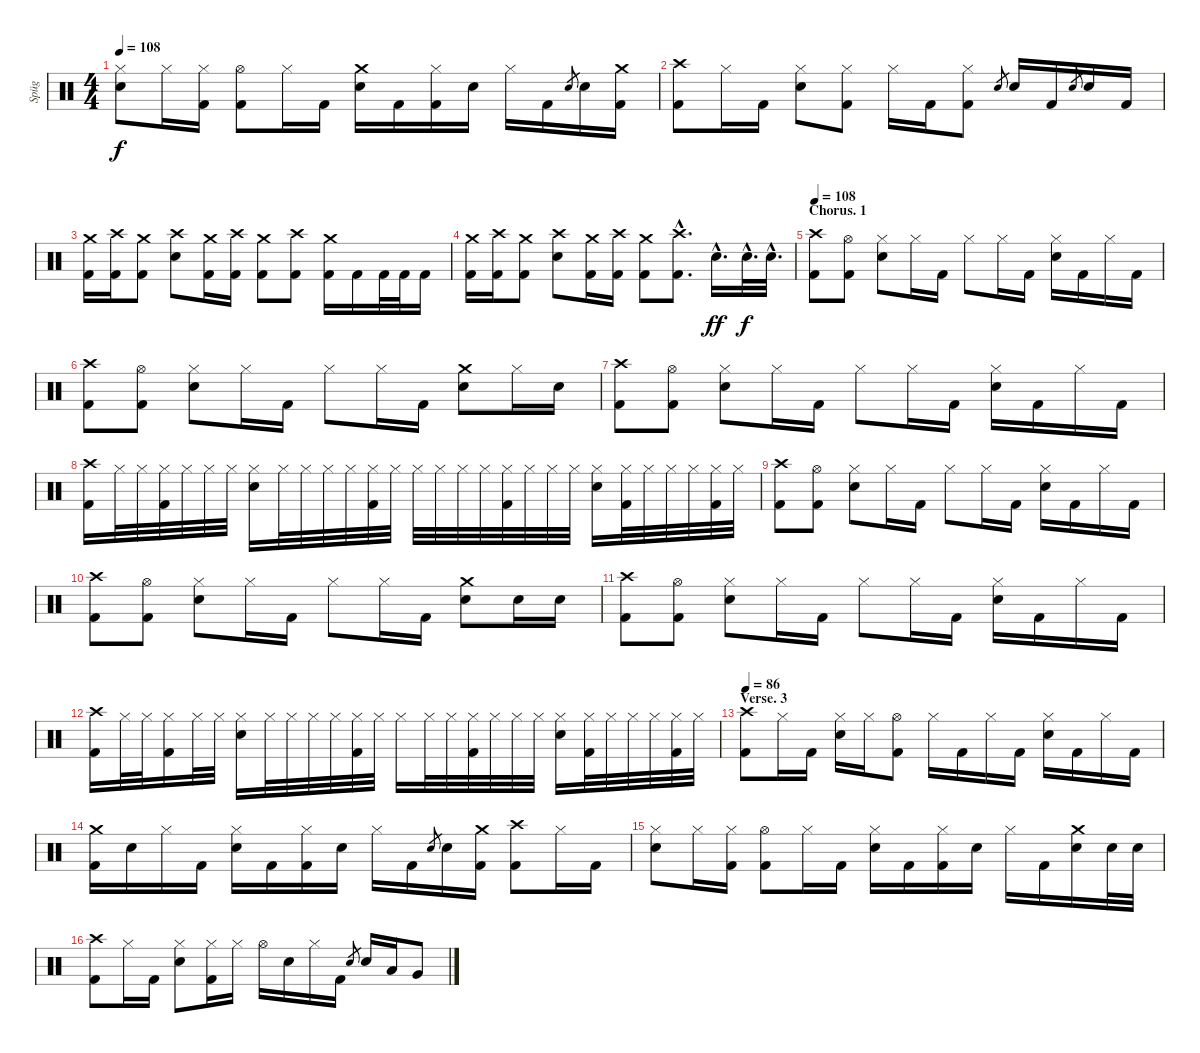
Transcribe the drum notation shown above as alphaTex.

\track ("Spüg" "Spüg") {instrument percussion}
\staff {score}
\articulation defaults
\ts (4 4)
\tempo 108
\clef neutral
\ks c
("Hi-Hat (closed)" "Electric Snare (hit)").8{dy f} "Hi-Hat (closed)".16 ("Hi-Hat (closed)" "Kick (hit) 2").16 ("Hi-Hat (open)" "Kick (hit) 2").8 "Hi-Hat (closed)".16 "Kick (hit) 2".16 ("Crash medium (hit)" "Electric Snare (hit)").16 "Kick (hit) 2".16 ("Hi-Hat (closed)" "Kick (hit) 2").16 "Electric Snare (hit)".16 "Hi-Hat (closed)".16 "Kick (hit) 2".16 "Electric Snare (hit)".8{gr} "Electric Snare (hit)".16 ("Crash medium (hit)" "Kick (hit) 2").16 |
("Crash high (hit)" "Kick (hit) 2").8 "Hi-Hat (closed)".16 "Kick (hit) 2".16 ("Hi-Hat (closed)" "Electric Snare (hit)").8 ("Hi-Hat (closed)" "Kick (hit) 2").8 "Hi-Hat (closed)".16 "Kick (hit) 2".16 ("Hi-Hat (closed)" "Kick (hit) 2").8 "Electric Snare (hit)".8{gr} "Electric Snare (hit)".16 "Kick (hit) 2".16 "Electric Snare (hit)".8{gr} "Electric Snare (hit)".16 "Kick (hit) 2".16 |
("Crash medium (hit)" "Kick (hit) 2").16 ("Crash high (hit)" "Kick (hit) 2").16 ("Crash medium (hit)" "Kick (hit) 2").8 ("Crash high (hit)" "Electric Snare (hit)").8 ("Crash medium (hit)" "Kick (hit) 2").16 ("Crash high (hit)" "Kick (hit) 2").16 ("Crash medium (hit)" "Kick (hit) 2").8 ("Crash high (hit)" "Kick (hit) 2").8 ("Crash medium (hit)" "Kick (hit) 2").16 "Kick (hit) 2".16 "Kick (hit) 2".32 "Kick (hit) 2".32 "Kick (hit) 2".16 |
("Crash medium (hit)" "Kick (hit) 2").16 ("Crash high (hit)" "Kick (hit) 2").16 ("Crash medium (hit)" "Kick (hit) 2").8 ("Crash high (hit)" "Electric Snare (hit)").8 ("Crash medium (hit)" "Kick (hit) 2").16 ("Crash high (hit)" "Kick (hit) 2").16 ("Crash medium (hit)" "Kick (hit) 2").8 ("Crash high (hit)"{hac} "Kick (hit) 2"{hac}).8{d} "Electric Snare (hit)"{hac}.16{d dy ff} "Electric Snare (hit)"{hac}.32{d dy f} "Electric Snare (hit)"{hac}.32{d} |
\section ("" "Chorus. 1")
\tempo 108
("Crash high (hit)" "Kick (hit) 2").8 ("Hi-Hat (open)" "Kick (hit) 2").8 ("Hi-Hat (closed)" "Electric Snare (hit)").8 "Hi-Hat (closed)".16 "Kick (hit) 2".16 "Hi-Hat (closed)".8 "Hi-Hat (closed)".16 "Kick (hit) 2".16 ("Hi-Hat (closed)" "Electric Snare (hit)").16 "Kick (hit) 2".16 "Hi-Hat (closed)".16 "Kick (hit) 2".16 |
("Crash high (hit)" "Kick (hit) 2").8 ("Hi-Hat (open)" "Kick (hit) 2").8 ("Hi-Hat (closed)" "Electric Snare (hit)").8 "Hi-Hat (closed)".16 "Kick (hit) 2".16 "Hi-Hat (closed)".8 "Hi-Hat (closed)".16 "Kick (hit) 2".16 ("Crash medium (hit)" "Electric Snare (hit)").8 "Hi-Hat (closed)".16 "Electric Snare (hit)".16 |
("Crash high (hit)" "Kick (hit) 2").8 ("Hi-Hat (open)" "Kick (hit) 2").8 ("Hi-Hat (closed)" "Electric Snare (hit)").8 "Hi-Hat (closed)".16 "Kick (hit) 2".16 "Hi-Hat (closed)".8 "Hi-Hat (closed)".16 "Kick (hit) 2".16 ("Hi-Hat (closed)" "Electric Snare (hit)").16 "Kick (hit) 2".16 "Hi-Hat (closed)".16 "Kick (hit) 2".16 |
("Crash high (hit)" "Kick (hit) 2").16 "Hi-Hat (closed)".32 "Hi-Hat (closed)".32 ("Hi-Hat (closed)" "Kick (hit) 2").32 "Hi-Hat (closed)".32 "Hi-Hat (closed)".32 "Hi-Hat (closed)".32 ("Hi-Hat (closed)" "Electric Snare (hit)").16 "Hi-Hat (closed)".32 "Hi-Hat (closed)".32 "Hi-Hat (closed)".32 "Hi-Hat (closed)".32 ("Hi-Hat (closed)" "Kick (hit) 2").32 "Hi-Hat (closed)".32 "Hi-Hat (closed)".32 "Hi-Hat (closed)".32 "Hi-Hat (closed)".32 "Hi-Hat (closed)".32 ("Hi-Hat (closed)" "Kick (hit) 2").32 "Hi-Hat (closed)".32 "Hi-Hat (closed)".32 "Hi-Hat (closed)".32 ("Hi-Hat (closed)" "Electric Snare (hit)").16 ("Hi-Hat (closed)" "Kick (hit) 2").32 "Hi-Hat (closed)".32 "Hi-Hat (closed)".32 "Hi-Hat (closed)".32 ("Hi-Hat (closed)" "Kick (hit) 2").32 "Hi-Hat (closed)".32 |
("Crash high (hit)" "Kick (hit) 2").8 ("Hi-Hat (open)" "Kick (hit) 2").8 ("Hi-Hat (closed)" "Electric Snare (hit)").8 "Hi-Hat (closed)".16 "Kick (hit) 2".16 "Hi-Hat (closed)".8 "Hi-Hat (closed)".16 "Kick (hit) 2".16 ("Hi-Hat (closed)" "Electric Snare (hit)").16 "Kick (hit) 2".16 "Hi-Hat (closed)".16 "Kick (hit) 2".16 |
("Crash high (hit)" "Kick (hit) 2").8 ("Hi-Hat (open)" "Kick (hit) 2").8 ("Hi-Hat (closed)" "Electric Snare (hit)").8 "Hi-Hat (closed)".16 "Kick (hit) 2".16 "Hi-Hat (closed)".8 "Hi-Hat (closed)".16 "Kick (hit) 2".16 ("Crash medium (hit)" "Electric Snare (hit)").8 "Electric Snare (hit)".16 "Electric Snare (hit)".16 |
("Crash high (hit)" "Kick (hit) 2").8 ("Hi-Hat (open)" "Kick (hit) 2").8 ("Hi-Hat (closed)" "Electric Snare (hit)").8 "Hi-Hat (closed)".16 "Kick (hit) 2".16 "Hi-Hat (closed)".8 "Hi-Hat (closed)".16 "Kick (hit) 2".16 ("Hi-Hat (closed)" "Electric Snare (hit)").16 "Kick (hit) 2".16 "Hi-Hat (closed)".16 "Kick (hit) 2".16 |
("Crash high (hit)" "Kick (hit) 2").16 "Hi-Hat (closed)".32 "Hi-Hat (closed)".32 ("Hi-Hat (closed)" "Kick (hit) 2").16 "Hi-Hat (closed)".32 "Hi-Hat (closed)".32 ("Hi-Hat (closed)" "Electric Snare (hit)").16 "Hi-Hat (closed)".32 "Hi-Hat (closed)".32 "Hi-Hat (closed)".32 "Hi-Hat (closed)".32 ("Hi-Hat (closed)" "Kick (hit) 2").32 "Hi-Hat (closed)".32 "Hi-Hat (closed)".16 "Hi-Hat (closed)".32 "Hi-Hat (closed)".32 ("Hi-Hat (closed)" "Kick (hit) 2").32 "Hi-Hat (closed)".32 "Hi-Hat (closed)".32 "Hi-Hat (closed)".32 ("Hi-Hat (closed)" "Electric Snare (hit)").16 ("Hi-Hat (closed)" "Kick (hit) 2").32 "Hi-Hat (closed)".32 "Hi-Hat (closed)".32 "Hi-Hat (closed)".32 ("Hi-Hat (closed)" "Kick (hit) 2").32 "Hi-Hat (closed)".32 |
\section ("" "Verse. 3 ")
\tempo 86
("Crash high (hit)" "Kick (hit) 2").8 "Hi-Hat (closed)".16 "Kick (hit) 2".16 ("Hi-Hat (closed)" "Electric Snare (hit)").16 "Hi-Hat (closed)".16 ("Hi-Hat (open)" "Kick (hit) 2").8 "Hi-Hat (closed)".16 "Kick (hit) 2".16 "Hi-Hat (closed)".16 "Kick (hit) 2".16 ("Hi-Hat (closed)" "Electric Snare (hit)").16 "Kick (hit) 2".16 "Hi-Hat (closed)".16 "Kick (hit) 2".16 |
("Crash medium (hit)" "Kick (hit) 2").16 "Electric Snare (hit)".16 "Hi-Hat (closed)".16 "Kick (hit) 2".16 ("Hi-Hat (closed)" "Electric Snare (hit)").16 "Kick (hit) 2".16 ("Hi-Hat (closed)" "Kick (hit) 2").16 "Electric Snare (hit)".16 "Hi-Hat (closed)".16 "Kick (hit) 2".16 "Electric Snare (hit)".8{gr} "Electric Snare (hit)".16 ("Crash medium (hit)" "Kick (hit) 2").16 ("Crash high (hit)" "Kick (hit) 2").8 "Hi-Hat (closed)".16 "Kick (hit) 2".16 |
("Hi-Hat (closed)" "Electric Snare (hit)").8 "Hi-Hat (closed)".16 ("Hi-Hat (closed)" "Kick (hit) 2").16 ("Hi-Hat (open)" "Kick (hit) 2").8 "Hi-Hat (closed)".16 "Kick (hit) 2".16 ("Hi-Hat (closed)" "Electric Snare (hit)").16 "Kick (hit) 2".16 ("Hi-Hat (closed)" "Kick (hit) 2").16 "Electric Snare (hit)".16 "Hi-Hat (closed)".16 "Kick (hit) 2".16 ("Crash medium (hit)" "Electric Snare (hit)").16 "Electric Snare (hit)".32 "Electric Snare (hit)".32 |
("Crash high (hit)" "Kick (hit) 2").8 "Hi-Hat (closed)".16 "Kick (hit) 2".16 ("Hi-Hat (closed)" "Electric Snare (hit)").8 ("Hi-Hat (closed)" "Kick (hit) 2").16 "Hi-Hat (closed)".16 "Hi-Hat (open)".16 "Electric Snare (hit)".16 "Hi-Hat (closed)".16 "Kick (hit) 2".16 "Electric Snare (hit)".8{gr} "Electric Snare (hit)".16 "Low Tom (hit)".16 "Very Low Tom (hit)".8
